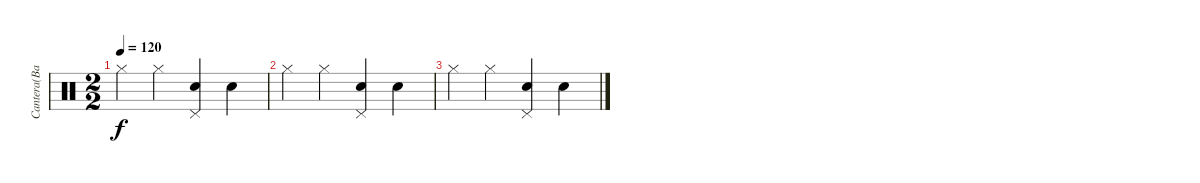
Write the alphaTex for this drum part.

\track ("Cantera(Bateria)" "Cantera(Ba") {instrument percussion}
\staff {score}
\articulation defaults
\ts (2 2)
\tempo 120
\clef neutral
\ks c "Hi-Hat (closed)".4{dy f} "Hi-Hat (closed)".4
("Electric Snare (hit)" "Pedal Hi-Hat (hit)").4 "Electric Snare (hit)".4 |
"Hi-Hat (closed)".4 "Hi-Hat (closed)".4 ("Electric Snare (hit)" "Pedal Hi-Hat (hit)").4 "Electric Snare (hit)".4 |
"Hi-Hat (closed)".4 "Hi-Hat (closed)".4 ("Electric Snare (hit)" "Pedal Hi-Hat (hit)").4 "Electric Snare (hit)".4
